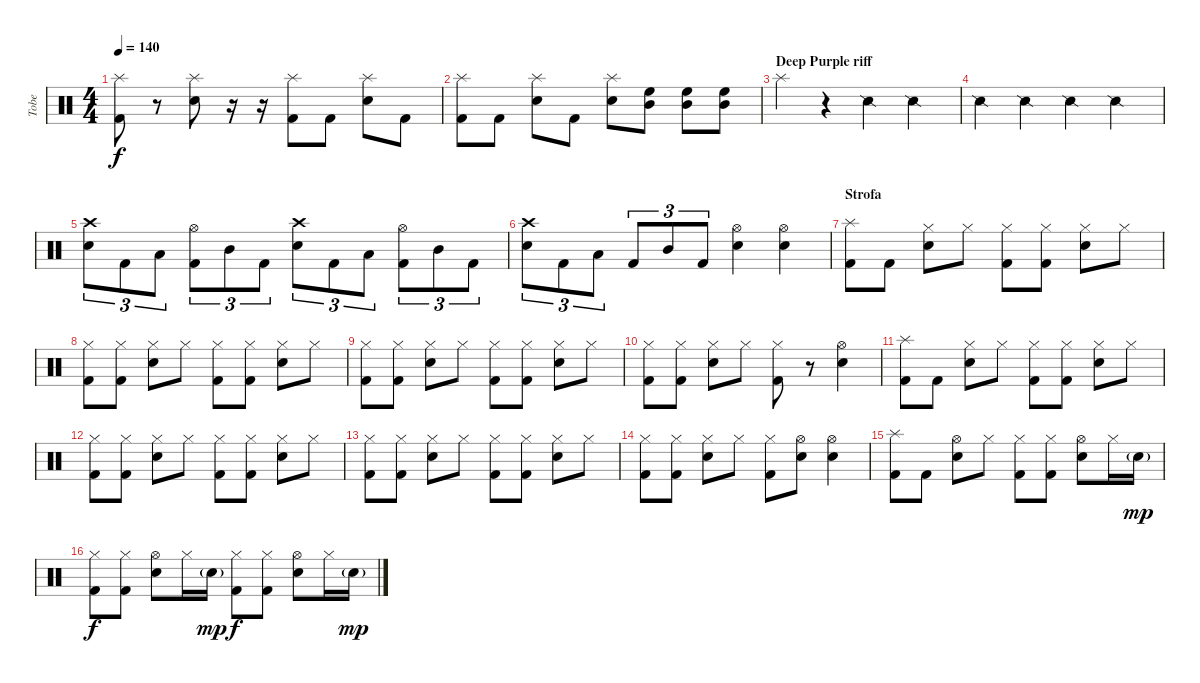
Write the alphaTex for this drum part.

\track ("Tobe" "Tobe") {instrument percussion}
\staff {score}
\articulation defaults
\ts (4 4)
\tempo 140
\clef neutral
\ks c
("Kick (hit) 2" "Splash (hit)").8{dy f} r.8 ("Electric Snare (hit)" "Splash (hit)").8 r.16 r.16 ("Kick (hit) 2" "Splash (hit)").8 "Kick (hit) 2".8 ("Electric Snare (hit)" "Splash (hit)").8 "Kick (hit) 2".8 |
("Kick (hit) 2" "Splash (hit)").8 "Kick (hit) 2".8 ("Electric Snare (hit)" "Splash (hit)").8 "Kick (hit) 2".8 ("Electric Snare (hit)" "Splash (hit)").8 ("High Floor Tom (hit)" "Mid Tom (hit)").8 ("High Floor Tom (hit)" "Mid Tom (hit)").8 ("High Floor Tom (hit)" "Mid Tom (hit)").8 |
\section ("" "Deep Purple riff")
"Splash (hit)".4 r.4 "Snare (side stick) 2".4 "Snare (side stick) 2".4 |
"Snare (side stick) 2".4 "Snare (side stick) 2".4 "Snare (side stick) 2".4 "Snare (side stick) 2".4 |
("Electric Snare (hit)" "Crash high (hit)").8{tu (3 2)} "Kick (hit) 2".8{tu (3 2)} "Low Tom (hit)".8{tu (3 2)} ("Kick (hit) 2" "Hi-Hat (open)").8{tu (3 2)} "Mid Tom (hit)".8{tu (3 2)} "Kick (hit) 2".8{tu (3 2)} ("Electric Snare (hit)" "Crash high (hit)").8{tu (3 2)} "Kick (hit) 2".8{tu (3 2)} "Low Tom (hit)".8{tu (3 2)} ("Kick (hit) 2" "Hi-Hat (open)").8{tu (3 2)} "Mid Tom (hit)".8{tu (3 2)} "Kick (hit) 2".8{tu (3 2)} |
("Electric Snare (hit)" "Crash high (hit)").8{tu (3 2)} "Kick (hit) 2".8{tu (3 2)} "Low Tom (hit)".8{tu (3 2)} "Kick (hit) 2".8{tu (3 2)} "Mid Tom (hit)".8{tu (3 2)} "Kick (hit) 2".8{tu (3 2)} ("Electric Snare (hit)" "Hi-Hat (open)").4 ("Electric Snare (hit)" "Hi-Hat (open)").4 |
\section ("" "Strofa")
("Kick (hit) 2" "Splash (hit)").8 "Kick (hit) 2".8 ("Electric Snare (hit)" "Hi-Hat (closed)").8 "Hi-Hat (closed)".8 ("Kick (hit) 2" "Hi-Hat (closed)").8 ("Kick (hit) 2" "Hi-Hat (closed)").8 ("Electric Snare (hit)" "Hi-Hat (closed)").8 "Hi-Hat (closed)".8 |
("Kick (hit) 2" "Hi-Hat (closed)").8 ("Kick (hit) 2" "Hi-Hat (closed)").8 ("Electric Snare (hit)" "Hi-Hat (closed)").8 "Hi-Hat (closed)".8 ("Kick (hit) 2" "Hi-Hat (closed)").8 ("Kick (hit) 2" "Hi-Hat (closed)").8 ("Electric Snare (hit)" "Hi-Hat (closed)").8 "Hi-Hat (closed)".8 |
("Kick (hit) 2" "Hi-Hat (closed)").8 ("Kick (hit) 2" "Hi-Hat (closed)").8 ("Electric Snare (hit)" "Hi-Hat (closed)").8 "Hi-Hat (closed)".8 ("Kick (hit) 2" "Hi-Hat (closed)").8 ("Kick (hit) 2" "Hi-Hat (closed)").8 ("Electric Snare (hit)" "Hi-Hat (closed)").8 "Hi-Hat (closed)".8 |
("Kick (hit) 2" "Hi-Hat (closed)").8 ("Kick (hit) 2" "Hi-Hat (closed)").8 ("Electric Snare (hit)" "Hi-Hat (closed)").8 "Hi-Hat (closed)".8 ("Kick (hit) 2" "Hi-Hat (closed)").8 r.8 ("Electric Snare (hit)" "Hi-Hat (open)").4 |
("Kick (hit) 2" "Splash (hit)").8 "Kick (hit) 2".8 ("Electric Snare (hit)" "Hi-Hat (closed)").8 "Hi-Hat (closed)".8 ("Kick (hit) 2" "Hi-Hat (closed)").8 ("Kick (hit) 2" "Hi-Hat (closed)").8 ("Electric Snare (hit)" "Hi-Hat (closed)").8 "Hi-Hat (closed)".8 |
("Kick (hit) 2" "Hi-Hat (closed)").8 ("Kick (hit) 2" "Hi-Hat (closed)").8 ("Electric Snare (hit)" "Hi-Hat (closed)").8 "Hi-Hat (closed)".8 ("Kick (hit) 2" "Hi-Hat (closed)").8 ("Kick (hit) 2" "Hi-Hat (closed)").8 ("Electric Snare (hit)" "Hi-Hat (closed)").8 "Hi-Hat (closed)".8 |
("Kick (hit) 2" "Hi-Hat (closed)").8 ("Kick (hit) 2" "Hi-Hat (closed)").8 ("Electric Snare (hit)" "Hi-Hat (closed)").8 "Hi-Hat (closed)".8 ("Kick (hit) 2" "Hi-Hat (closed)").8 ("Kick (hit) 2" "Hi-Hat (closed)").8 ("Electric Snare (hit)" "Hi-Hat (closed)").8 "Hi-Hat (closed)".8 |
("Kick (hit) 2" "Hi-Hat (closed)").8 ("Kick (hit) 2" "Hi-Hat (closed)").8 ("Electric Snare (hit)" "Hi-Hat (closed)").8 "Hi-Hat (closed)".8 ("Kick (hit) 2" "Hi-Hat (closed)").8 ("Electric Snare (hit)" "Hi-Hat (open)").8 ("Electric Snare (hit)" "Hi-Hat (open)").4 |
("Kick (hit) 2" "Splash (hit)").8 "Kick (hit) 2".8 ("Electric Snare (hit)" "Hi-Hat (open)").8 "Hi-Hat (closed)".8 ("Kick (hit) 2" "Hi-Hat (closed)").8 ("Kick (hit) 2" "Hi-Hat (closed)").8 ("Electric Snare (hit)" "Hi-Hat (open)").8 "Hi-Hat (closed)".16 "Electric Snare (hit)"{g}.16{dy mp} |
("Kick (hit) 2" "Hi-Hat (closed)").8{dy f} ("Kick (hit) 2" "Hi-Hat (closed)").8 ("Electric Snare (hit)" "Hi-Hat (open)").8 "Hi-Hat (closed)".16 "Electric Snare (hit)"{g}.16{dy mp} ("Kick (hit) 2" "Hi-Hat (closed)").8{dy f} ("Kick (hit) 2" "Hi-Hat (closed)").8 ("Electric Snare (hit)" "Hi-Hat (open)").8 "Hi-Hat (closed)".16 "Electric Snare (hit)"{g}.16{dy mp}
